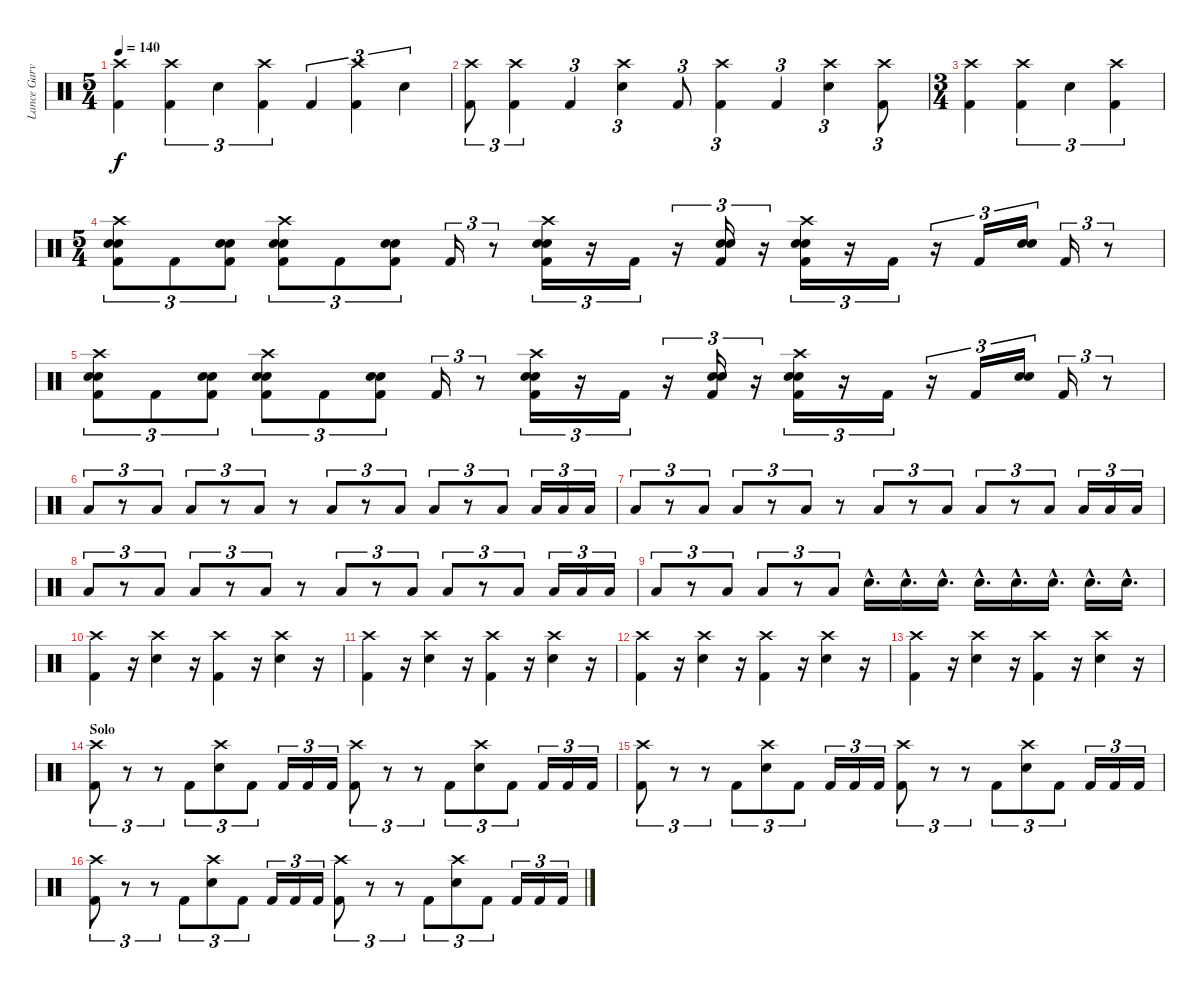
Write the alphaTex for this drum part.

\track ("Lance Garvin - Drums" "Lance Garv") {instrument percussion}
\staff {score}
\articulation defaults
\ts (5 4)
\tempo 140
\clef neutral
\ks c
("Crash high (hit)" "Kick (hit) 2").4{dy f} ("Crash high (hit)" "Kick (hit) 2").4{tu (3 2)} "Electric Snare (hit)".4{tu (3 2)} ("Crash high (hit)" "Kick (hit) 2").4{tu (3 2)} "Kick (hit) 2".4{tu (3 2)} ("Crash high (hit)" "Kick (hit) 2").4{tu (3 2)} "Electric Snare (hit)".4{tu (3 2)} |
("Crash high (hit)" "Kick (hit) 2").8{tu (3 2)} ("Crash high (hit)" "Kick (hit) 2").4{tu (3 2)} "Kick (hit) 2".4{tu (3 2)} ("Crash high (hit)" "Electric Snare (hit)").4{tu (3 2)} "Kick (hit) 2".8{tu (3 2)} ("Crash high (hit)" "Kick (hit) 2").4{tu (3 2)} "Kick (hit) 2".4{tu (3 2)} ("Crash high (hit)" "Electric Snare (hit)").4{tu (3 2)} ("Crash high (hit)" "Kick (hit) 2").8{tu (3 2)} |
\ts (3 4)
("Crash high (hit)" "Kick (hit) 2").4 ("Crash high (hit)" "Kick (hit) 2").4{tu (3 2)} "Electric Snare (hit)".4{tu (3 2)} ("Crash high (hit)" "Kick (hit) 2").4{tu (3 2)} |
\ts (5 4)
("Crash high (hit)" "Electric Snare (hit)" "Electric Snare (hit)" "Kick (hit) 2").8{tu (3 2)} "Kick (hit) 2".8{tu (3 2)} ("Electric Snare (hit)" "Electric Snare (hit)" "Kick (hit) 2").8{tu (3 2)} ("Crash high (hit)" "Electric Snare (hit)" "Electric Snare (hit)" "Kick (hit) 2").8{tu (3 2)} "Kick (hit) 2".8{tu (3 2)} ("Electric Snare (hit)" "Electric Snare (hit)" "Kick (hit) 2").8{tu (3 2)} "Kick (hit) 2".16{tu (3 2)} r.8{tu (3 2)} ("Crash high (hit)" "Electric Snare (hit)" "Electric Snare (hit)" "Kick (hit) 2").16{tu (3 2)} r.16{tu (3 2)} "Kick (hit) 2".16{tu (3 2)} r.16{tu (3 2)} ("Electric Snare (hit)" "Electric Snare (hit)" "Kick (hit) 2").16{tu (3 2)} r.16{tu (3 2)} ("Crash high (hit)" "Electric Snare (hit)" "Electric Snare (hit)" "Kick (hit) 2").16{tu (3 2)} r.16{tu (3 2)} "Kick (hit) 2".16{tu (3 2)} r.16{tu (3 2)} "Kick (hit) 2".16{tu (3 2)} ("Electric Snare (hit)" "Electric Snare (hit)").16{tu (3 2)} "Kick (hit) 2".16{tu (3 2)} r.8{tu (3 2)} |
("Crash high (hit)" "Electric Snare (hit)" "Electric Snare (hit)" "Kick (hit) 2").8{tu (3 2)} "Kick (hit) 2".8{tu (3 2)} ("Electric Snare (hit)" "Electric Snare (hit)" "Kick (hit) 2").8{tu (3 2)} ("Crash high (hit)" "Electric Snare (hit)" "Electric Snare (hit)" "Kick (hit) 2").8{tu (3 2)} "Kick (hit) 2".8{tu (3 2)} ("Electric Snare (hit)" "Electric Snare (hit)" "Kick (hit) 2").8{tu (3 2)} "Kick (hit) 2".16{tu (3 2)} r.8{tu (3 2)} ("Crash high (hit)" "Electric Snare (hit)" "Electric Snare (hit)" "Kick (hit) 2").16{tu (3 2)} r.16{tu (3 2)} "Kick (hit) 2".16{tu (3 2)} r.16{tu (3 2)} ("Electric Snare (hit)" "Electric Snare (hit)" "Kick (hit) 2").16{tu (3 2)} r.16{tu (3 2)} ("Crash high (hit)" "Electric Snare (hit)" "Electric Snare (hit)" "Kick (hit) 2").16{tu (3 2)} r.16{tu (3 2)} "Kick (hit) 2".16{tu (3 2)} r.16{tu (3 2)} "Kick (hit) 2".16{tu (3 2)} ("Electric Snare (hit)" "Electric Snare (hit)").16{tu (3 2)} "Kick (hit) 2".16{tu (3 2)} r.8{tu (3 2)} |
"Low Tom (hit)".8{tu (3 2)} r.8{tu (3 2)} "Low Floor Tom (hit)".8{tu (3 2)} "Low Tom (hit)".8{tu (3 2)} r.8{tu (3 2)} "Low Floor Tom (hit)".8{tu (3 2)} r.8 "Low Tom (hit)".8{tu (3 2)} r.8{tu (3 2)} "Low Floor Tom (hit)".8{tu (3 2)} "Low Tom (hit)".8{tu (3 2)} r.8{tu (3 2)} "Low Floor Tom (hit)".8{tu (3 2)} "Low Floor Tom (hit)".16{tu (3 2)} "Low Floor Tom (hit)".16{tu (3 2)} "Low Floor Tom (hit)".16{tu (3 2)} |
"Low Tom (hit)".8{tu (3 2)} r.8{tu (3 2)} "Low Floor Tom (hit)".8{tu (3 2)} "Low Tom (hit)".8{tu (3 2)} r.8{tu (3 2)} "Low Floor Tom (hit)".8{tu (3 2)} r.8 "Low Tom (hit)".8{tu (3 2)} r.8{tu (3 2)} "Low Floor Tom (hit)".8{tu (3 2)} "Low Tom (hit)".8{tu (3 2)} r.8{tu (3 2)} "Low Floor Tom (hit)".8{tu (3 2)} "Low Floor Tom (hit)".16{tu (3 2)} "Low Floor Tom (hit)".16{tu (3 2)} "Low Floor Tom (hit)".16{tu (3 2)} |
"Low Tom (hit)".8{tu (3 2)} r.8{tu (3 2)} "Low Floor Tom (hit)".8{tu (3 2)} "Low Tom (hit)".8{tu (3 2)} r.8{tu (3 2)} "Low Floor Tom (hit)".8{tu (3 2)} r.8 "Low Tom (hit)".8{tu (3 2)} r.8{tu (3 2)} "Low Floor Tom (hit)".8{tu (3 2)} "Low Tom (hit)".8{tu (3 2)} r.8{tu (3 2)} "Low Floor Tom (hit)".8{tu (3 2)} "Low Floor Tom (hit)".16{tu (3 2)} "Low Floor Tom (hit)".16{tu (3 2)} "Low Floor Tom (hit)".16{tu (3 2)} |
"Low Tom (hit)".8{tu (3 2)} r.8{tu (3 2)} "Low Floor Tom (hit)".8{tu (3 2)} "Low Tom (hit)".8{tu (3 2)} r.8{tu (3 2)} "Low Floor Tom (hit)".8{tu (3 2)} "Electric Snare (hit)"{hac}.16{d volume 4} "Electric Snare (hit)"{hac}.16{d volume 5} "Electric Snare (hit)"{hac}.16{d volume 8} "Electric Snare (hit)"{hac}.16{d volume 9} "Electric Snare (hit)"{hac}.16{d volume 11} "Electric Snare (hit)"{hac}.16{d} "Electric Snare (hit)"{hac}.16{d} "Electric Snare (hit)"{hac}.16{d} |
("Crash high (hit)" "Kick (hit) 2").4 r.16 ("Crash high (hit)" "Electric Snare (hit)").4 r.16 ("Crash high (hit)" "Kick (hit) 2").4 r.16 ("Crash high (hit)" "Electric Snare (hit)").4 r.16 |
("Crash high (hit)" "Kick (hit) 2").4 r.16 ("Crash high (hit)" "Electric Snare (hit)").4 r.16 ("Crash high (hit)" "Kick (hit) 2").4 r.16 ("Crash high (hit)" "Electric Snare (hit)").4 r.16 |
("Crash high (hit)" "Kick (hit) 2").4 r.16 ("Crash high (hit)" "Electric Snare (hit)").4 r.16 ("Crash high (hit)" "Kick (hit) 2").4 r.16 ("Crash high (hit)" "Electric Snare (hit)").4 r.16 |
("Crash high (hit)" "Kick (hit) 2").4 r.16 ("Crash high (hit)" "Electric Snare (hit)").4 r.16 ("Crash high (hit)" "Kick (hit) 2").4 r.16 ("Crash high (hit)" "Electric Snare (hit)").4 r.16 |
\section ("" "Solo")
("Crash high (hit)" "Kick (hit) 2").8{tu (3 2)} r.8{tu (3 2)} r.8{tu (3 2)} "Kick (hit) 2".8{tu (3 2)} ("Crash high (hit)" "Electric Snare (hit)").8{tu (3 2)} "Kick (hit) 2".8{tu (3 2)} "Kick (hit) 2".16{tu (3 2)} "Kick (hit) 2".16{tu (3 2)} "Kick (hit) 2".16{tu (3 2)} ("Crash high (hit)" "Kick (hit) 2").8{tu (3 2)} r.8{tu (3 2)} r.8{tu (3 2)} "Kick (hit) 2".8{tu (3 2)} ("Crash high (hit)" "Electric Snare (hit)").8{tu (3 2)} "Kick (hit) 2".8{tu (3 2)} "Kick (hit) 2".16{tu (3 2)} "Kick (hit) 2".16{tu (3 2)} "Kick (hit) 2".16{tu (3 2)} |
("Crash high (hit)" "Kick (hit) 2").8{tu (3 2)} r.8{tu (3 2)} r.8{tu (3 2)} "Kick (hit) 2".8{tu (3 2)} ("Crash high (hit)" "Electric Snare (hit)").8{tu (3 2)} "Kick (hit) 2".8{tu (3 2)} "Kick (hit) 2".16{tu (3 2)} "Kick (hit) 2".16{tu (3 2)} "Kick (hit) 2".16{tu (3 2)} ("Crash high (hit)" "Kick (hit) 2").8{tu (3 2)} r.8{tu (3 2)} r.8{tu (3 2)} "Kick (hit) 2".8{tu (3 2)} ("Crash high (hit)" "Electric Snare (hit)").8{tu (3 2)} "Kick (hit) 2".8{tu (3 2)} "Kick (hit) 2".16{tu (3 2)} "Kick (hit) 2".16{tu (3 2)} "Kick (hit) 2".16{tu (3 2)} |
("Crash high (hit)" "Kick (hit) 2").8{tu (3 2)} r.8{tu (3 2)} r.8{tu (3 2)} "Kick (hit) 2".8{tu (3 2)} ("Crash high (hit)" "Electric Snare (hit)").8{tu (3 2)} "Kick (hit) 2".8{tu (3 2)} "Kick (hit) 2".16{tu (3 2)} "Kick (hit) 2".16{tu (3 2)} "Kick (hit) 2".16{tu (3 2)} ("Crash high (hit)" "Kick (hit) 2").8{tu (3 2)} r.8{tu (3 2)} r.8{tu (3 2)} "Kick (hit) 2".8{tu (3 2)} ("Crash high (hit)" "Electric Snare (hit)").8{tu (3 2)} "Kick (hit) 2".8{tu (3 2)} "Kick (hit) 2".16{tu (3 2)} "Kick (hit) 2".16{tu (3 2)} "Kick (hit) 2".16{tu (3 2)}
